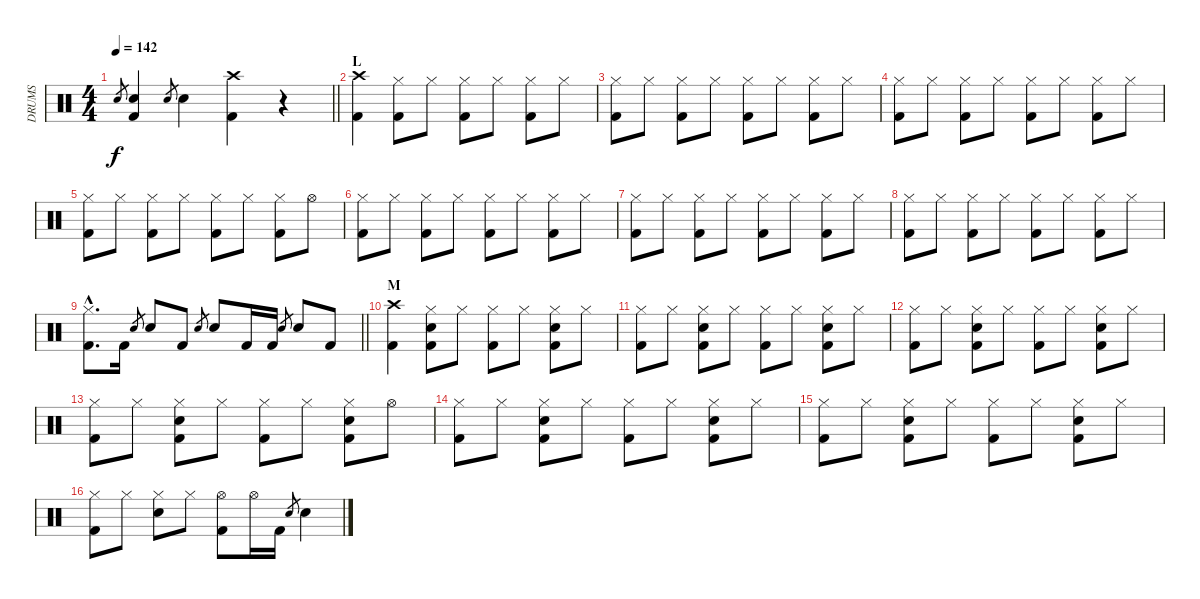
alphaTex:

\track ("DRUMS" "DRUMS") {instrument percussion}
\staff {score}
\articulation defaults
\ts (4 4)
\tempo 142
\clef neutral
\barLineRight lightlight
\ks c "Snare (hit) 2".8{gr dy f}
("Snare (hit) 2" "Kick (hit) 2").4 "Snare (hit) 2".8{gr} "Snare (hit) 2".4 ("Crash high (hit)" "Kick (hit) 2").4 r.4 |
\section ("" "L")
("Crash high (hit)" "Kick (hit) 2").4 ("Hi-Hat (closed)" "Kick (hit) 2").8 "Hi-Hat (closed)".8 ("Hi-Hat (closed)" "Kick (hit) 2").8 "Hi-Hat (closed)".8 ("Hi-Hat (closed)" "Kick (hit) 2").8 "Hi-Hat (closed)".8 |
("Hi-Hat (closed)" "Kick (hit) 2").8 "Hi-Hat (closed)".8 ("Hi-Hat (closed)" "Kick (hit) 2").8 "Hi-Hat (closed)".8 ("Hi-Hat (closed)" "Kick (hit) 2").8 "Hi-Hat (closed)".8 ("Hi-Hat (closed)" "Kick (hit) 2").8 "Hi-Hat (closed)".8 |
("Hi-Hat (closed)" "Kick (hit) 2").8 "Hi-Hat (closed)".8 ("Hi-Hat (closed)" "Kick (hit) 2").8 "Hi-Hat (closed)".8 ("Hi-Hat (closed)" "Kick (hit) 2").8 "Hi-Hat (closed)".8 ("Hi-Hat (closed)" "Kick (hit) 2").8 "Hi-Hat (closed)".8 |
("Hi-Hat (closed)" "Kick (hit) 2").8 "Hi-Hat (closed)".8 ("Hi-Hat (closed)" "Kick (hit) 2").8 "Hi-Hat (closed)".8 ("Hi-Hat (closed)" "Kick (hit) 2").8 "Hi-Hat (closed)".8 ("Hi-Hat (closed)" "Kick (hit) 2").8 "Hi-Hat (open)".8 |
("Hi-Hat (closed)" "Kick (hit) 2").8 "Hi-Hat (closed)".8 ("Hi-Hat (closed)" "Kick (hit) 2").8 "Hi-Hat (closed)".8 ("Hi-Hat (closed)" "Kick (hit) 2").8 "Hi-Hat (closed)".8 ("Hi-Hat (closed)" "Kick (hit) 2").8 "Hi-Hat (closed)".8 |
("Hi-Hat (closed)" "Kick (hit) 2").8 "Hi-Hat (closed)".8 ("Hi-Hat (closed)" "Kick (hit) 2").8 "Hi-Hat (closed)".8 ("Hi-Hat (closed)" "Kick (hit) 2").8 "Hi-Hat (closed)".8 ("Hi-Hat (closed)" "Kick (hit) 2").8 "Hi-Hat (closed)".8 |
("Hi-Hat (closed)" "Kick (hit) 2").8 "Hi-Hat (closed)".8 ("Hi-Hat (closed)" "Kick (hit) 2").8 "Hi-Hat (closed)".8 ("Hi-Hat (closed)" "Kick (hit) 2").8 "Hi-Hat (closed)".8 ("Hi-Hat (closed)" "Kick (hit) 2").8 "Hi-Hat (closed)".8 |
\barLineRight lightlight
("Hi-Hat (closed)"{hac} "Kick (hit) 2"{hac}).8{d} "Kick (hit) 2".16 "Snare (hit) 2".8{gr} "Snare (hit) 2".8 "Kick (hit) 2".8 "Snare (hit) 2".8{gr} "Snare (hit) 2".8 "Kick (hit) 2".16 "Kick (hit) 2".16 "Snare (hit) 2".8{gr} "Snare (hit) 2".8 "Kick (hit) 2".8 |
\section ("" "M")
("Crash high (hit)" "Kick (hit) 2").4 ("Hi-Hat (closed)" "Snare (hit) 2" "Kick (hit) 2").8 "Hi-Hat (closed)".8 ("Hi-Hat (closed)" "Kick (hit) 2").8 "Hi-Hat (closed)".8 ("Hi-Hat (closed)" "Snare (hit) 2" "Kick (hit) 2").8 "Hi-Hat (closed)".8 |
("Hi-Hat (closed)" "Kick (hit) 2").8 "Hi-Hat (closed)".8 ("Hi-Hat (closed)" "Snare (hit) 2" "Kick (hit) 2").8 "Hi-Hat (closed)".8 ("Hi-Hat (closed)" "Kick (hit) 2").8 "Hi-Hat (closed)".8 ("Hi-Hat (closed)" "Snare (hit) 2" "Kick (hit) 2").8 "Hi-Hat (closed)".8 |
("Hi-Hat (closed)" "Kick (hit) 2").8 "Hi-Hat (closed)".8 ("Hi-Hat (closed)" "Snare (hit) 2" "Kick (hit) 2").8 "Hi-Hat (closed)".8 ("Hi-Hat (closed)" "Kick (hit) 2").8 "Hi-Hat (closed)".8 ("Hi-Hat (closed)" "Snare (hit) 2" "Kick (hit) 2").8 "Hi-Hat (closed)".8 |
("Hi-Hat (closed)" "Kick (hit) 2").8 "Hi-Hat (closed)".8 ("Hi-Hat (closed)" "Snare (hit) 2" "Kick (hit) 2").8 "Hi-Hat (closed)".8 ("Hi-Hat (closed)" "Kick (hit) 2").8 "Hi-Hat (closed)".8 ("Hi-Hat (closed)" "Snare (hit) 2" "Kick (hit) 2").8 "Hi-Hat (open)".8 |
("Hi-Hat (closed)" "Kick (hit) 2").8 "Hi-Hat (closed)".8 ("Hi-Hat (closed)" "Snare (hit) 2" "Kick (hit) 2").8 "Hi-Hat (closed)".8 ("Hi-Hat (closed)" "Kick (hit) 2").8 "Hi-Hat (closed)".8 ("Hi-Hat (closed)" "Snare (hit) 2" "Kick (hit) 2").8 "Hi-Hat (closed)".8 |
("Hi-Hat (closed)" "Kick (hit) 2").8 "Hi-Hat (closed)".8 ("Hi-Hat (closed)" "Snare (hit) 2" "Kick (hit) 2").8 "Hi-Hat (closed)".8 ("Hi-Hat (closed)" "Kick (hit) 2").8 "Hi-Hat (closed)".8 ("Hi-Hat (closed)" "Snare (hit) 2" "Kick (hit) 2").8 "Hi-Hat (closed)".8 |
("Hi-Hat (closed)" "Kick (hit) 2").8 "Hi-Hat (closed)".8 ("Hi-Hat (closed)" "Snare (hit) 2").8 "Hi-Hat (closed)".8 ("Hi-Hat (open)" "Kick (hit) 2").8 "Hi-Hat (open)".16 "Kick (hit) 2".16 "Snare (hit) 2".8{gr} "Snare (hit) 2".4
